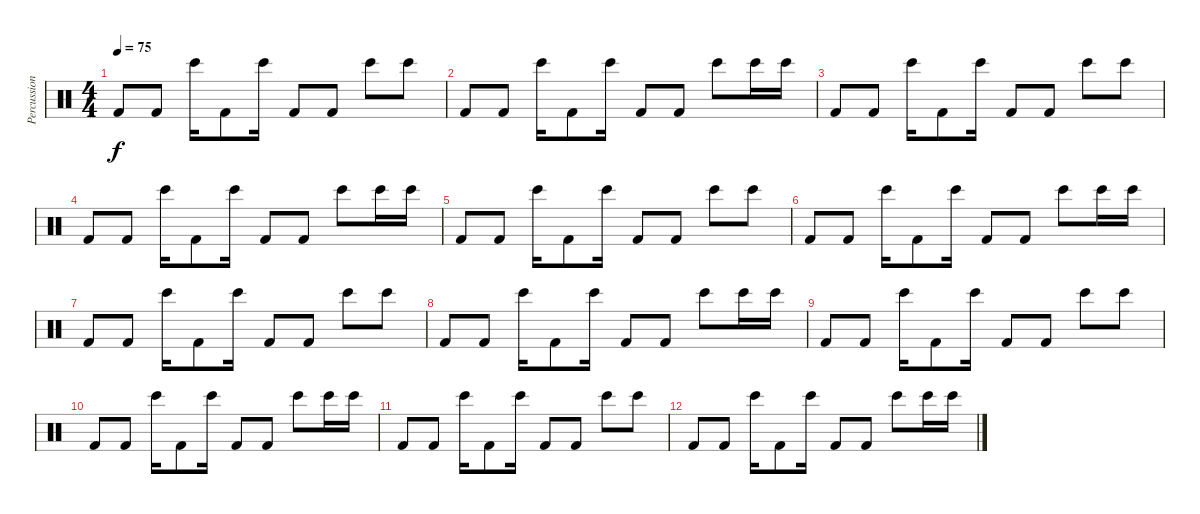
\track ("Percussion" "Percussion") {instrument percussion}
\staff {score}
\articulation defaults
\ts (4 4)
\tempo 75
\clef neutral
\ks c "Kick (hit) 2".8{dy f} "Kick (hit) 2".8 "Bongo High (hit)".16 "Kick (hit) 2".8 "Bongo High (hit)".16 "Kick (hit) 2".8 "Kick (hit) 2".8 "Bongo High (hit)".8 "Bongo High (hit)".8
|
"Kick (hit) 2".8 "Kick (hit) 2".8 "Bongo High (hit)".16 "Kick (hit) 2".8 "Bongo High (hit)".16 "Kick (hit) 2".8 "Kick (hit) 2".8 "Bongo High (hit)".8 "Bongo High (hit)".16 "Bongo High (hit)".16 |
"Kick (hit) 2".8 "Kick (hit) 2".8 "Bongo High (hit)".16 "Kick (hit) 2".8 "Bongo High (hit)".16 "Kick (hit) 2".8 "Kick (hit) 2".8 "Bongo High (hit)".8 "Bongo High (hit)".8 |
"Kick (hit) 2".8 "Kick (hit) 2".8 "Bongo High (hit)".16 "Kick (hit) 2".8 "Bongo High (hit)".16 "Kick (hit) 2".8 "Kick (hit) 2".8 "Bongo High (hit)".8 "Bongo High (hit)".16 "Bongo High (hit)".16 |
"Kick (hit) 2".8 "Kick (hit) 2".8 "Bongo High (hit)".16 "Kick (hit) 2".8 "Bongo High (hit)".16 "Kick (hit) 2".8 "Kick (hit) 2".8 "Bongo High (hit)".8 "Bongo High (hit)".8 |
"Kick (hit) 2".8 "Kick (hit) 2".8 "Bongo High (hit)".16 "Kick (hit) 2".8 "Bongo High (hit)".16 "Kick (hit) 2".8 "Kick (hit) 2".8 "Bongo High (hit)".8 "Bongo High (hit)".16 "Bongo High (hit)".16 |
"Kick (hit) 2".8 "Kick (hit) 2".8 "Bongo High (hit)".16 "Kick (hit) 2".8 "Bongo High (hit)".16 "Kick (hit) 2".8 "Kick (hit) 2".8 "Bongo High (hit)".8 "Bongo High (hit)".8 |
"Kick (hit) 2".8 "Kick (hit) 2".8 "Bongo High (hit)".16 "Kick (hit) 2".8 "Bongo High (hit)".16 "Kick (hit) 2".8 "Kick (hit) 2".8 "Bongo High (hit)".8 "Bongo High (hit)".16 "Bongo High (hit)".16 |
"Kick (hit) 2".8 "Kick (hit) 2".8 "Bongo High (hit)".16 "Kick (hit) 2".8 "Bongo High (hit)".16 "Kick (hit) 2".8 "Kick (hit) 2".8 "Bongo High (hit)".8 "Bongo High (hit)".8 |
"Kick (hit) 2".8 "Kick (hit) 2".8 "Bongo High (hit)".16 "Kick (hit) 2".8 "Bongo High (hit)".16 "Kick (hit) 2".8 "Kick (hit) 2".8 "Bongo High (hit)".8 "Bongo High (hit)".16 "Bongo High (hit)".16 |
"Kick (hit) 2".8 "Kick (hit) 2".8 "Bongo High (hit)".16 "Kick (hit) 2".8 "Bongo High (hit)".16 "Kick (hit) 2".8 "Kick (hit) 2".8 "Bongo High (hit)".8 "Bongo High (hit)".8 |
"Kick (hit) 2".8 "Kick (hit) 2".8 "Bongo High (hit)".16 "Kick (hit) 2".8 "Bongo High (hit)".16 "Kick (hit) 2".8 "Kick (hit) 2".8 "Bongo High (hit)".8 "Bongo High (hit)".16 "Bongo High (hit)".16
